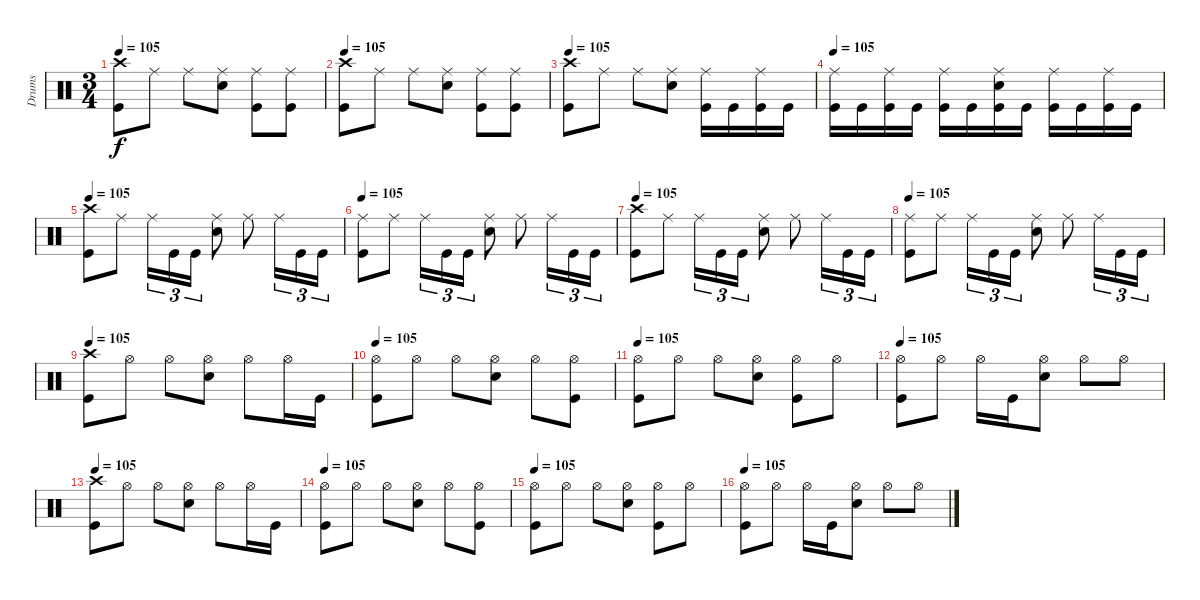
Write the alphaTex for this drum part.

\track ("Drums" "Drums") {instrument percussion}
\staff {score}
\articulation defaults
\ts (3 4)
\tempo 105
\clef neutral
\ks c
("Crash high (hit)" "Kick (hit)").8{dy f} "Ride (middle)".8 "Ride (middle)".8 ("Ride (middle)" "Electric Snare (hit)").8 ("Ride (middle)" "Kick (hit)").8 ("Ride (middle)" "Kick (hit)").8 |
\tempo 105
("Crash high (hit)" "Kick (hit)").8 "Ride (middle)".8 "Ride (middle)".8 ("Ride (middle)" "Electric Snare (hit)").8 ("Ride (middle)" "Kick (hit)").8 ("Ride (middle)" "Kick (hit)").8 |
\tempo 105
("Crash high (hit)" "Kick (hit)").8 "Ride (middle)".8 "Ride (middle)".8 ("Ride (middle)" "Electric Snare (hit)").8 ("Ride (middle)" "Kick (hit)").16 "Kick (hit)".16 ("Ride (middle)" "Kick (hit)").16 "Kick (hit)".16 |
\tempo 105
("Ride (middle)" "Kick (hit)").16 "Kick (hit)".16 ("Ride (middle)" "Kick (hit)").16 "Kick (hit)".16 ("Ride (middle)" "Kick (hit)").16 "Kick (hit)".16 ("Ride (middle)" "Electric Snare (hit)" "Kick (hit)").16 "Kick (hit)".16 ("Ride (middle)" "Kick (hit)").16 "Kick (hit)".16 ("Ride (middle)" "Kick (hit)").16 "Kick (hit)".16 |
\tempo 105
("Crash high (hit)" "Kick (hit)").8 "Ride (middle)".8 "Ride (middle)".16{tu (3 2)} "Kick (hit)".16{tu (3 2)} "Kick (hit)".16{tu (3 2)} ("Ride (middle)" "Electric Snare (hit)").8 "Ride (middle)".8 "Ride (middle)".16{tu (3 2)} "Kick (hit)".16{tu (3 2)} "Kick (hit)".16{tu (3 2)} |
\tempo 105
("Ride (middle)" "Kick (hit)").8 "Ride (middle)".8 "Ride (middle)".16{tu (3 2)} "Kick (hit)".16{tu (3 2)} "Kick (hit)".16{tu (3 2)} ("Ride (middle)" "Electric Snare (hit)").8 "Ride (middle)".8 "Ride (middle)".16{tu (3 2)} "Kick (hit)".16{tu (3 2)} "Kick (hit)".16{tu (3 2)} |
\tempo 105
("Crash high (hit)" "Kick (hit)").8 "Ride (middle)".8 "Ride (middle)".16{tu (3 2)} "Kick (hit)".16{tu (3 2)} "Kick (hit)".16{tu (3 2)} ("Ride (middle)" "Electric Snare (hit)").8 "Ride (middle)".8 "Ride (middle)".16{tu (3 2)} "Kick (hit)".16{tu (3 2)} "Kick (hit)".16{tu (3 2)} |
\tempo 105
("Ride (middle)" "Kick (hit)").8 "Ride (middle)".8 "Ride (middle)".16{tu (3 2)} "Kick (hit)".16{tu (3 2)} "Kick (hit)".16{tu (3 2)} ("Ride (middle)" "Electric Snare (hit)").8 "Ride (middle)".8 "Ride (middle)".16{tu (3 2)} "Kick (hit)".16{tu (3 2)} "Kick (hit)".16{tu (3 2)} |
\tempo 105
("Crash high (hit)" "Kick (hit)").8 "Hi-Hat (open)".8 "Hi-Hat (open)".8 ("Hi-Hat (open)" "Electric Snare (hit)").8 "Hi-Hat (open)".8 "Hi-Hat (open)".16 "Kick (hit)".16 |
\tempo 105
("Hi-Hat (open)" "Kick (hit)").8 "Hi-Hat (open)".8 "Hi-Hat (open)".8 ("Hi-Hat (open)" "Electric Snare (hit)").8 "Hi-Hat (open)".8 ("Hi-Hat (open)" "Kick (hit)").8 |
\tempo 105
("Hi-Hat (open)" "Kick (hit)").8 "Hi-Hat (open)".8 "Hi-Hat (open)".8 ("Hi-Hat (open)" "Electric Snare (hit)").8 ("Hi-Hat (open)" "Kick (hit)").8 "Hi-Hat (open)".8 |
\tempo 105
("Hi-Hat (open)" "Kick (hit)").8 "Hi-Hat (open)".8 "Hi-Hat (open)".16 "Kick (hit)".16 ("Hi-Hat (open)" "Electric Snare (hit)").8 "Hi-Hat (open)".8 "Hi-Hat (open)".8 |
\tempo 105
("Crash high (hit)" "Kick (hit)").8 "Hi-Hat (open)".8 "Hi-Hat (open)".8 ("Hi-Hat (open)" "Electric Snare (hit)").8 "Hi-Hat (open)".8 "Hi-Hat (open)".16 "Kick (hit)".16 |
\tempo 105
("Hi-Hat (open)" "Kick (hit)").8 "Hi-Hat (open)".8 "Hi-Hat (open)".8 ("Hi-Hat (open)" "Electric Snare (hit)").8 "Hi-Hat (open)".8 ("Hi-Hat (open)" "Kick (hit)").8 |
\tempo 105
("Hi-Hat (open)" "Kick (hit)").8 "Hi-Hat (open)".8 "Hi-Hat (open)".8 ("Hi-Hat (open)" "Electric Snare (hit)").8 ("Hi-Hat (open)" "Kick (hit)").8 "Hi-Hat (open)".8 |
\tempo 105
("Hi-Hat (open)" "Kick (hit)").8 "Hi-Hat (open)".8 "Hi-Hat (open)".16 "Kick (hit)".16 ("Hi-Hat (open)" "Electric Snare (hit)").8 "Hi-Hat (open)".8 "Hi-Hat (open)".8
